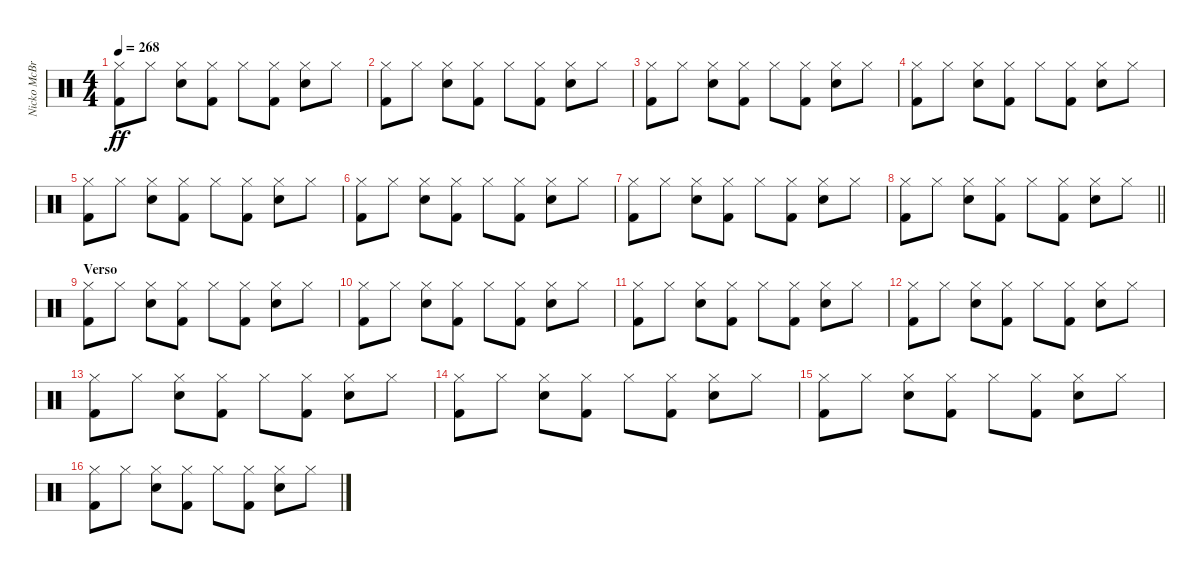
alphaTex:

\track ("Nicko McBrain" "Nicko McBr") {instrument percussion}
\staff {score}
\articulation defaults
\ts (4 4)
\tempo 268
\clef neutral
\ks c
("Kick (hit) 2" "Hi-Hat (closed)").8{dy ff} "Hi-Hat (closed)".8 ("Snare (hit) 2" "Hi-Hat (closed)").8 ("Kick (hit) 2" "Hi-Hat (closed)").8 "Hi-Hat (closed)".8 ("Kick (hit) 2" "Hi-Hat (closed)").8 ("Snare (hit) 2" "Hi-Hat (closed)").8 "Hi-Hat (closed)".8 |
("Kick (hit) 2" "Hi-Hat (closed)").8 "Hi-Hat (closed)".8 ("Snare (hit) 2" "Hi-Hat (closed)").8 ("Kick (hit) 2" "Hi-Hat (closed)").8 "Hi-Hat (closed)".8 ("Kick (hit) 2" "Hi-Hat (closed)").8 ("Snare (hit) 2" "Hi-Hat (closed)").8 "Hi-Hat (closed)".8 |
("Kick (hit) 2" "Hi-Hat (closed)").8 "Hi-Hat (closed)".8 ("Snare (hit) 2" "Hi-Hat (closed)").8 ("Kick (hit) 2" "Hi-Hat (closed)").8 "Hi-Hat (closed)".8 ("Kick (hit) 2" "Hi-Hat (closed)").8 ("Snare (hit) 2" "Hi-Hat (closed)").8 "Hi-Hat (closed)".8 |
("Kick (hit) 2" "Hi-Hat (closed)").8 "Hi-Hat (closed)".8 ("Snare (hit) 2" "Hi-Hat (closed)").8 ("Kick (hit) 2" "Hi-Hat (closed)").8 "Hi-Hat (closed)".8 ("Kick (hit) 2" "Hi-Hat (closed)").8 ("Snare (hit) 2" "Hi-Hat (closed)").8 "Hi-Hat (closed)".8 |
("Kick (hit) 2" "Hi-Hat (closed)").8 "Hi-Hat (closed)".8 ("Snare (hit) 2" "Hi-Hat (closed)").8 ("Kick (hit) 2" "Hi-Hat (closed)").8 "Hi-Hat (closed)".8 ("Kick (hit) 2" "Hi-Hat (closed)").8 ("Snare (hit) 2" "Hi-Hat (closed)").8 "Hi-Hat (closed)".8 |
("Kick (hit) 2" "Hi-Hat (closed)").8 "Hi-Hat (closed)".8 ("Snare (hit) 2" "Hi-Hat (closed)").8 ("Kick (hit) 2" "Hi-Hat (closed)").8 "Hi-Hat (closed)".8 ("Kick (hit) 2" "Hi-Hat (closed)").8 ("Snare (hit) 2" "Hi-Hat (closed)").8 "Hi-Hat (closed)".8 |
("Kick (hit) 2" "Hi-Hat (closed)").8 "Hi-Hat (closed)".8 ("Snare (hit) 2" "Hi-Hat (closed)").8 ("Kick (hit) 2" "Hi-Hat (closed)").8 "Hi-Hat (closed)".8 ("Kick (hit) 2" "Hi-Hat (closed)").8 ("Snare (hit) 2" "Hi-Hat (closed)").8 "Hi-Hat (closed)".8 |
\barLineRight lightlight
("Kick (hit) 2" "Hi-Hat (closed)").8 "Hi-Hat (closed)".8 ("Snare (hit) 2" "Hi-Hat (closed)").8 ("Kick (hit) 2" "Hi-Hat (closed)").8 "Hi-Hat (closed)".8 ("Kick (hit) 2" "Hi-Hat (closed)").8 ("Snare (hit) 2" "Hi-Hat (closed)").8 "Hi-Hat (closed)".8 |
\section ("" "Verso")
("Kick (hit) 2" "Hi-Hat (closed)").8 "Hi-Hat (closed)".8 ("Snare (hit) 2" "Hi-Hat (closed)").8 ("Kick (hit) 2" "Hi-Hat (closed)").8 "Hi-Hat (closed)".8 ("Kick (hit) 2" "Hi-Hat (closed)").8 ("Snare (hit) 2" "Hi-Hat (closed)").8 "Hi-Hat (closed)".8 |
("Kick (hit) 2" "Hi-Hat (closed)").8 "Hi-Hat (closed)".8 ("Snare (hit) 2" "Hi-Hat (closed)").8 ("Kick (hit) 2" "Hi-Hat (closed)").8 "Hi-Hat (closed)".8 ("Kick (hit) 2" "Hi-Hat (closed)").8 ("Snare (hit) 2" "Hi-Hat (closed)").8 "Hi-Hat (closed)".8 |
("Kick (hit) 2" "Hi-Hat (closed)").8 "Hi-Hat (closed)".8 ("Snare (hit) 2" "Hi-Hat (closed)").8 ("Kick (hit) 2" "Hi-Hat (closed)").8 "Hi-Hat (closed)".8 ("Kick (hit) 2" "Hi-Hat (closed)").8 ("Snare (hit) 2" "Hi-Hat (closed)").8 "Hi-Hat (closed)".8 |
("Kick (hit) 2" "Hi-Hat (closed)").8 "Hi-Hat (closed)".8 ("Snare (hit) 2" "Hi-Hat (closed)").8 ("Kick (hit) 2" "Hi-Hat (closed)").8 "Hi-Hat (closed)".8 ("Kick (hit) 2" "Hi-Hat (closed)").8 ("Snare (hit) 2" "Hi-Hat (closed)").8 "Hi-Hat (closed)".8 |
("Kick (hit) 2" "Hi-Hat (closed)").8 "Hi-Hat (closed)".8 ("Snare (hit) 2" "Hi-Hat (closed)").8 ("Kick (hit) 2" "Hi-Hat (closed)").8 "Hi-Hat (closed)".8 ("Kick (hit) 2" "Hi-Hat (closed)").8 ("Snare (hit) 2" "Hi-Hat (closed)").8 "Hi-Hat (closed)".8 |
("Kick (hit) 2" "Hi-Hat (closed)").8 "Hi-Hat (closed)".8 ("Snare (hit) 2" "Hi-Hat (closed)").8 ("Kick (hit) 2" "Hi-Hat (closed)").8 "Hi-Hat (closed)".8 ("Kick (hit) 2" "Hi-Hat (closed)").8 ("Snare (hit) 2" "Hi-Hat (closed)").8 "Hi-Hat (closed)".8 |
("Kick (hit) 2" "Hi-Hat (closed)").8 "Hi-Hat (closed)".8 ("Snare (hit) 2" "Hi-Hat (closed)").8 ("Kick (hit) 2" "Hi-Hat (closed)").8 "Hi-Hat (closed)".8 ("Kick (hit) 2" "Hi-Hat (closed)").8 ("Snare (hit) 2" "Hi-Hat (closed)").8 "Hi-Hat (closed)".8 |
("Kick (hit) 2" "Hi-Hat (closed)").8 "Hi-Hat (closed)".8 ("Snare (hit) 2" "Hi-Hat (closed)").8 ("Kick (hit) 2" "Hi-Hat (closed)").8 "Hi-Hat (closed)".8 ("Kick (hit) 2" "Hi-Hat (closed)").8 ("Snare (hit) 2" "Hi-Hat (closed)").8 "Hi-Hat (closed)".8
